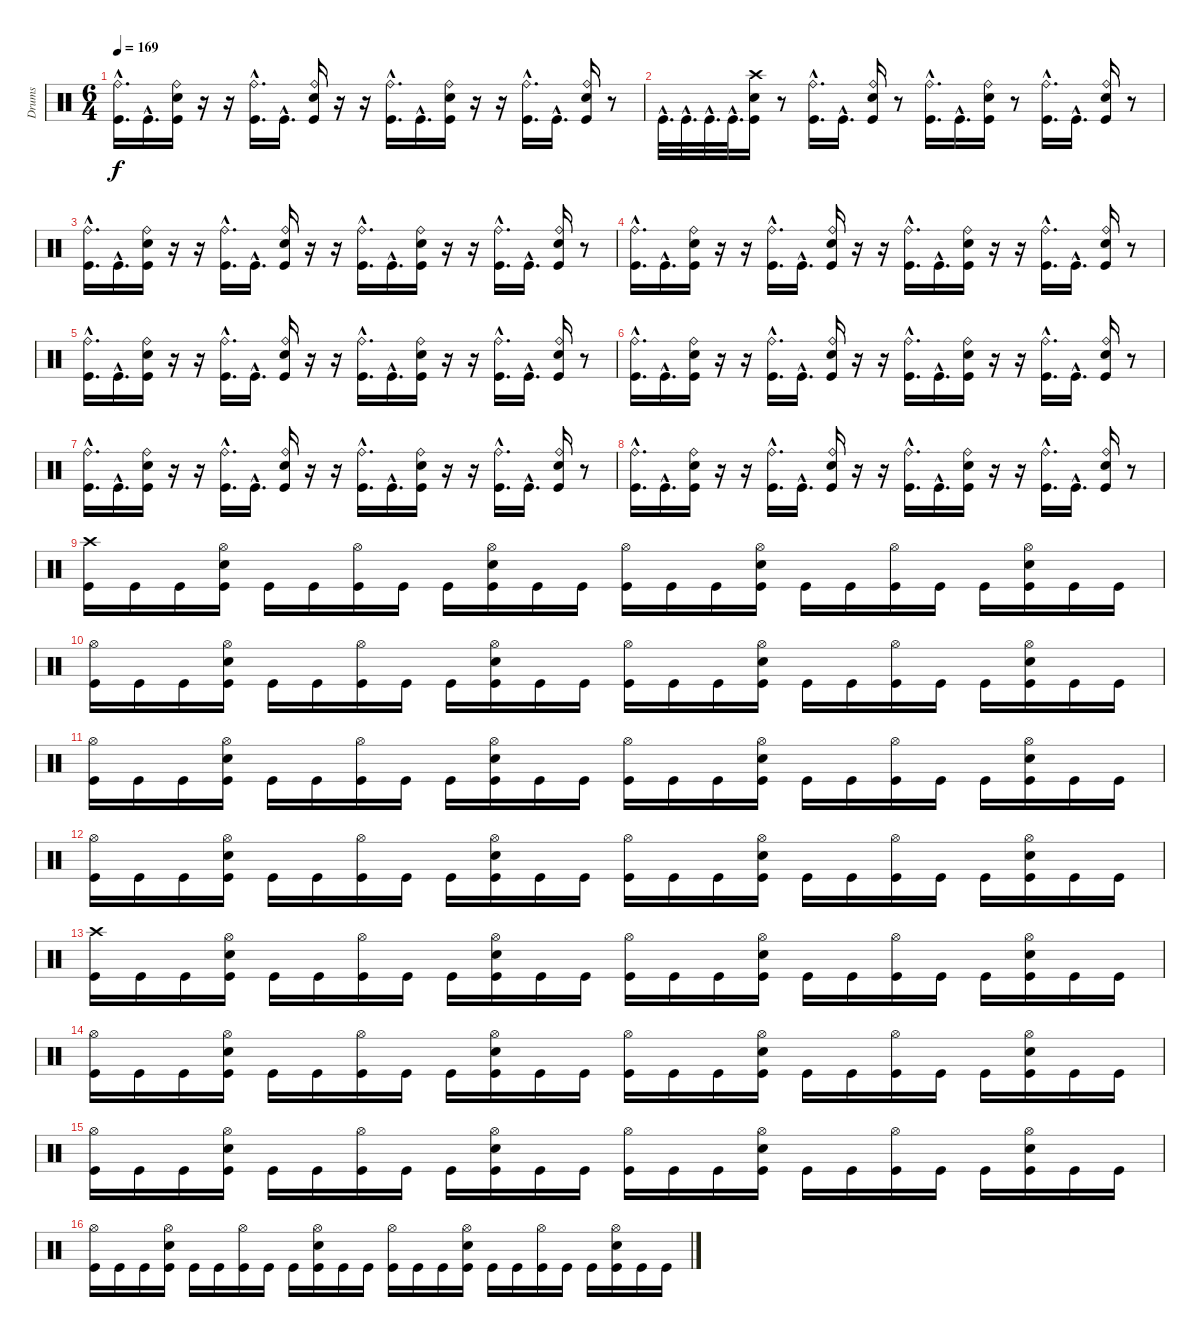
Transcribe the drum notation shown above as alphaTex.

\track ("Drums" "Drums") {instrument percussion}
\staff {score}
\articulation defaults
\ts (6 4)
\tempo 169
\clef neutral
\ks c
("Kick (hit)"{hac} "Ride (bell)"{hac}).16{d dy f} "Kick (hit)"{hac}.16{d} ("Kick (hit)" "Electric Snare (hit)" "Ride (bell)").16 r.16 r.16 ("Kick (hit)"{hac} "Ride (bell)"{hac}).16{d} "Kick (hit)"{hac}.16{d} ("Kick (hit)" "Electric Snare (hit)" "Ride (bell)").16 r.16 r.16 ("Kick (hit)"{hac} "Ride (bell)"{hac}).16{d} "Kick (hit)"{hac}.16{d} ("Kick (hit)" "Electric Snare (hit)" "Ride (bell)").16 r.16 r.16 ("Kick (hit)"{hac} "Ride (bell)"{hac}).16{d} "Kick (hit)"{hac}.16{d} ("Kick (hit)" "Electric Snare (hit)" "Ride (bell)").16 r.8 |
"Kick (hit)"{hac}.32{d} "Kick (hit)"{hac}.32{d} "Kick (hit)"{hac}.32{d} "Kick (hit)"{hac}.32{d} ("Kick (hit)" "Electric Snare (hit)" "Crash high (hit)").16 r.8 ("Kick (hit)"{hac} "Ride (bell)"{hac}).16{d} "Kick (hit)"{hac}.16{d} ("Kick (hit)" "Electric Snare (hit)" "Ride (bell)").16 r.8 ("Kick (hit)"{hac} "Ride (bell)"{hac}).16{d} "Kick (hit)"{hac}.16{d} ("Kick (hit)" "Electric Snare (hit)" "Ride (bell)").16 r.8 ("Kick (hit)"{hac} "Ride (bell)"{hac}).16{d} "Kick (hit)"{hac}.16{d} ("Kick (hit)" "Electric Snare (hit)" "Ride (bell)").16 r.8 |
("Kick (hit)"{hac} "Ride (bell)"{hac}).16{d} "Kick (hit)"{hac}.16{d} ("Kick (hit)" "Electric Snare (hit)" "Ride (bell)").16 r.16 r.16 ("Kick (hit)"{hac} "Ride (bell)"{hac}).16{d} "Kick (hit)"{hac}.16{d} ("Kick (hit)" "Electric Snare (hit)" "Ride (bell)").16 r.16 r.16 ("Kick (hit)"{hac} "Ride (bell)"{hac}).16{d} "Kick (hit)"{hac}.16{d} ("Kick (hit)" "Electric Snare (hit)" "Ride (bell)").16 r.16 r.16 ("Kick (hit)"{hac} "Ride (bell)"{hac}).16{d} "Kick (hit)"{hac}.16{d} ("Kick (hit)" "Electric Snare (hit)" "Ride (bell)").16 r.8 |
("Kick (hit)"{hac} "Ride (bell)"{hac}).16{d} "Kick (hit)"{hac}.16{d} ("Kick (hit)" "Electric Snare (hit)" "Ride (bell)").16 r.16 r.16 ("Kick (hit)"{hac} "Ride (bell)"{hac}).16{d} "Kick (hit)"{hac}.16{d} ("Kick (hit)" "Electric Snare (hit)" "Ride (bell)").16 r.16 r.16 ("Kick (hit)"{hac} "Ride (bell)"{hac}).16{d} "Kick (hit)"{hac}.16{d} ("Kick (hit)" "Electric Snare (hit)" "Ride (bell)").16 r.16 r.16 ("Kick (hit)"{hac} "Ride (bell)"{hac}).16{d} "Kick (hit)"{hac}.16{d} ("Kick (hit)" "Electric Snare (hit)" "Ride (bell)").16 r.8 |
("Kick (hit)"{hac} "Ride (bell)"{hac}).16{d} "Kick (hit)"{hac}.16{d} ("Kick (hit)" "Electric Snare (hit)" "Ride (bell)").16 r.16 r.16 ("Kick (hit)"{hac} "Ride (bell)"{hac}).16{d} "Kick (hit)"{hac}.16{d} ("Kick (hit)" "Electric Snare (hit)" "Ride (bell)").16 r.16 r.16 ("Kick (hit)"{hac} "Ride (bell)"{hac}).16{d} "Kick (hit)"{hac}.16{d} ("Kick (hit)" "Electric Snare (hit)" "Ride (bell)").16 r.16 r.16 ("Kick (hit)"{hac} "Ride (bell)"{hac}).16{d} "Kick (hit)"{hac}.16{d} ("Kick (hit)" "Electric Snare (hit)" "Ride (bell)").16 r.8 |
("Kick (hit)"{hac} "Ride (bell)"{hac}).16{d} "Kick (hit)"{hac}.16{d} ("Kick (hit)" "Electric Snare (hit)" "Ride (bell)").16 r.16 r.16 ("Kick (hit)"{hac} "Ride (bell)"{hac}).16{d} "Kick (hit)"{hac}.16{d} ("Kick (hit)" "Electric Snare (hit)" "Ride (bell)").16 r.16 r.16 ("Kick (hit)"{hac} "Ride (bell)"{hac}).16{d} "Kick (hit)"{hac}.16{d} ("Kick (hit)" "Electric Snare (hit)" "Ride (bell)").16 r.16 r.16 ("Kick (hit)"{hac} "Ride (bell)"{hac}).16{d} "Kick (hit)"{hac}.16{d} ("Kick (hit)" "Electric Snare (hit)" "Ride (bell)").16 r.8 |
("Kick (hit)"{hac} "Ride (bell)"{hac}).16{d} "Kick (hit)"{hac}.16{d} ("Kick (hit)" "Electric Snare (hit)" "Ride (bell)").16 r.16 r.16 ("Kick (hit)"{hac} "Ride (bell)"{hac}).16{d} "Kick (hit)"{hac}.16{d} ("Kick (hit)" "Electric Snare (hit)" "Ride (bell)").16 r.16 r.16 ("Kick (hit)"{hac} "Ride (bell)"{hac}).16{d} "Kick (hit)"{hac}.16{d} ("Kick (hit)" "Electric Snare (hit)" "Ride (bell)").16 r.16 r.16 ("Kick (hit)"{hac} "Ride (bell)"{hac}).16{d} "Kick (hit)"{hac}.16{d} ("Kick (hit)" "Electric Snare (hit)" "Ride (bell)").16 r.8 |
("Kick (hit)"{hac} "Ride (bell)"{hac}).16{d} "Kick (hit)"{hac}.16{d} ("Kick (hit)" "Electric Snare (hit)" "Ride (bell)").16 r.16 r.16 ("Kick (hit)"{hac} "Ride (bell)"{hac}).16{d} "Kick (hit)"{hac}.16{d} ("Kick (hit)" "Electric Snare (hit)" "Ride (bell)").16 r.16 r.16 ("Kick (hit)"{hac} "Ride (bell)"{hac}).16{d} "Kick (hit)"{hac}.16{d} ("Kick (hit)" "Electric Snare (hit)" "Ride (bell)").16 r.16 r.16 ("Kick (hit)"{hac} "Ride (bell)"{hac}).16{d} "Kick (hit)"{hac}.16{d} ("Kick (hit)" "Electric Snare (hit)" "Ride (bell)").16 r.8 |
("Kick (hit)" "Crash high (hit)").16 "Kick (hit)".16 "Kick (hit)".16 ("Kick (hit)" "Electric Snare (hit)" "Hi-Hat (open)").16 "Kick (hit)".16 "Kick (hit)".16 ("Kick (hit)" "Hi-Hat (open)").16 "Kick (hit)".16 "Kick (hit)".16 ("Kick (hit)" "Electric Snare (hit)" "Hi-Hat (open)").16 "Kick (hit)".16 "Kick (hit)".16 ("Kick (hit)" "Hi-Hat (open)").16 "Kick (hit)".16 "Kick (hit)".16 ("Kick (hit)" "Electric Snare (hit)" "Hi-Hat (open)").16 "Kick (hit)".16 "Kick (hit)".16 ("Kick (hit)" "Hi-Hat (open)").16 "Kick (hit)".16 "Kick (hit)".16 ("Kick (hit)" "Electric Snare (hit)" "Hi-Hat (open)").16 "Kick (hit)".16 "Kick (hit)".16 |
("Kick (hit)" "Hi-Hat (open)").16 "Kick (hit)".16 "Kick (hit)".16 ("Kick (hit)" "Electric Snare (hit)" "Hi-Hat (open)").16 "Kick (hit)".16 "Kick (hit)".16 ("Kick (hit)" "Hi-Hat (open)").16 "Kick (hit)".16 "Kick (hit)".16 ("Kick (hit)" "Electric Snare (hit)" "Hi-Hat (open)").16 "Kick (hit)".16 "Kick (hit)".16 ("Kick (hit)" "Hi-Hat (open)").16 "Kick (hit)".16 "Kick (hit)".16 ("Kick (hit)" "Electric Snare (hit)" "Hi-Hat (open)").16 "Kick (hit)".16 "Kick (hit)".16 ("Kick (hit)" "Hi-Hat (open)").16 "Kick (hit)".16 "Kick (hit)".16 ("Kick (hit)" "Electric Snare (hit)" "Hi-Hat (open)").16 "Kick (hit)".16 "Kick (hit)".16 |
("Kick (hit)" "Hi-Hat (open)").16 "Kick (hit)".16 "Kick (hit)".16 ("Kick (hit)" "Electric Snare (hit)" "Hi-Hat (open)").16 "Kick (hit)".16 "Kick (hit)".16 ("Kick (hit)" "Hi-Hat (open)").16 "Kick (hit)".16 "Kick (hit)".16 ("Kick (hit)" "Electric Snare (hit)" "Hi-Hat (open)").16 "Kick (hit)".16 "Kick (hit)".16 ("Kick (hit)" "Hi-Hat (open)").16 "Kick (hit)".16 "Kick (hit)".16 ("Kick (hit)" "Electric Snare (hit)" "Hi-Hat (open)").16 "Kick (hit)".16 "Kick (hit)".16 ("Kick (hit)" "Hi-Hat (open)").16 "Kick (hit)".16 "Kick (hit)".16 ("Kick (hit)" "Electric Snare (hit)" "Hi-Hat (open)").16 "Kick (hit)".16 "Kick (hit)".16 |
("Kick (hit)" "Hi-Hat (open)").16 "Kick (hit)".16 "Kick (hit)".16 ("Kick (hit)" "Electric Snare (hit)" "Hi-Hat (open)").16 "Kick (hit)".16 "Kick (hit)".16 ("Kick (hit)" "Hi-Hat (open)").16 "Kick (hit)".16 "Kick (hit)".16 ("Kick (hit)" "Electric Snare (hit)" "Hi-Hat (open)").16 "Kick (hit)".16 "Kick (hit)".16 ("Kick (hit)" "Hi-Hat (open)").16 "Kick (hit)".16 "Kick (hit)".16 ("Kick (hit)" "Electric Snare (hit)" "Hi-Hat (open)").16 "Kick (hit)".16 "Kick (hit)".16 ("Kick (hit)" "Hi-Hat (open)").16 "Kick (hit)".16 "Kick (hit)".16 ("Kick (hit)" "Electric Snare (hit)" "Hi-Hat (open)").16 "Kick (hit)".16 "Kick (hit)".16 |
("Kick (hit)" "Crash high (hit)").16 "Kick (hit)".16 "Kick (hit)".16 ("Kick (hit)" "Electric Snare (hit)" "Hi-Hat (open)").16 "Kick (hit)".16 "Kick (hit)".16 ("Kick (hit)" "Hi-Hat (open)").16 "Kick (hit)".16 "Kick (hit)".16 ("Kick (hit)" "Electric Snare (hit)" "Hi-Hat (open)").16 "Kick (hit)".16 "Kick (hit)".16 ("Kick (hit)" "Hi-Hat (open)").16 "Kick (hit)".16 "Kick (hit)".16 ("Kick (hit)" "Electric Snare (hit)" "Hi-Hat (open)").16 "Kick (hit)".16 "Kick (hit)".16 ("Kick (hit)" "Hi-Hat (open)").16 "Kick (hit)".16 "Kick (hit)".16 ("Kick (hit)" "Electric Snare (hit)" "Hi-Hat (open)").16 "Kick (hit)".16 "Kick (hit)".16 |
("Kick (hit)" "Hi-Hat (open)").16 "Kick (hit)".16 "Kick (hit)".16 ("Kick (hit)" "Electric Snare (hit)" "Hi-Hat (open)").16 "Kick (hit)".16 "Kick (hit)".16 ("Kick (hit)" "Hi-Hat (open)").16 "Kick (hit)".16 "Kick (hit)".16 ("Kick (hit)" "Electric Snare (hit)" "Hi-Hat (open)").16 "Kick (hit)".16 "Kick (hit)".16 ("Kick (hit)" "Hi-Hat (open)").16 "Kick (hit)".16 "Kick (hit)".16 ("Kick (hit)" "Electric Snare (hit)" "Hi-Hat (open)").16 "Kick (hit)".16 "Kick (hit)".16 ("Kick (hit)" "Hi-Hat (open)").16 "Kick (hit)".16 "Kick (hit)".16 ("Kick (hit)" "Electric Snare (hit)" "Hi-Hat (open)").16 "Kick (hit)".16 "Kick (hit)".16 |
("Kick (hit)" "Hi-Hat (open)").16 "Kick (hit)".16 "Kick (hit)".16 ("Kick (hit)" "Electric Snare (hit)" "Hi-Hat (open)").16 "Kick (hit)".16 "Kick (hit)".16 ("Kick (hit)" "Hi-Hat (open)").16 "Kick (hit)".16 "Kick (hit)".16 ("Kick (hit)" "Electric Snare (hit)" "Hi-Hat (open)").16 "Kick (hit)".16 "Kick (hit)".16 ("Kick (hit)" "Hi-Hat (open)").16 "Kick (hit)".16 "Kick (hit)".16 ("Kick (hit)" "Electric Snare (hit)" "Hi-Hat (open)").16 "Kick (hit)".16 "Kick (hit)".16 ("Kick (hit)" "Hi-Hat (open)").16 "Kick (hit)".16 "Kick (hit)".16 ("Kick (hit)" "Electric Snare (hit)" "Hi-Hat (open)").16 "Kick (hit)".16 "Kick (hit)".16 |
("Kick (hit)" "Hi-Hat (open)").16 "Kick (hit)".16 "Kick (hit)".16 ("Kick (hit)" "Electric Snare (hit)" "Hi-Hat (open)").16 "Kick (hit)".16 "Kick (hit)".16 ("Kick (hit)" "Hi-Hat (open)").16 "Kick (hit)".16 "Kick (hit)".16 ("Kick (hit)" "Electric Snare (hit)" "Hi-Hat (open)").16 "Kick (hit)".16 "Kick (hit)".16 ("Kick (hit)" "Hi-Hat (open)").16 "Kick (hit)".16 "Kick (hit)".16 ("Kick (hit)" "Electric Snare (hit)" "Hi-Hat (open)").16 "Kick (hit)".16 "Kick (hit)".16 ("Kick (hit)" "Hi-Hat (open)").16 "Kick (hit)".16 "Kick (hit)".16 ("Kick (hit)" "Electric Snare (hit)" "Hi-Hat (open)").16 "Kick (hit)".16 "Kick (hit)".16
